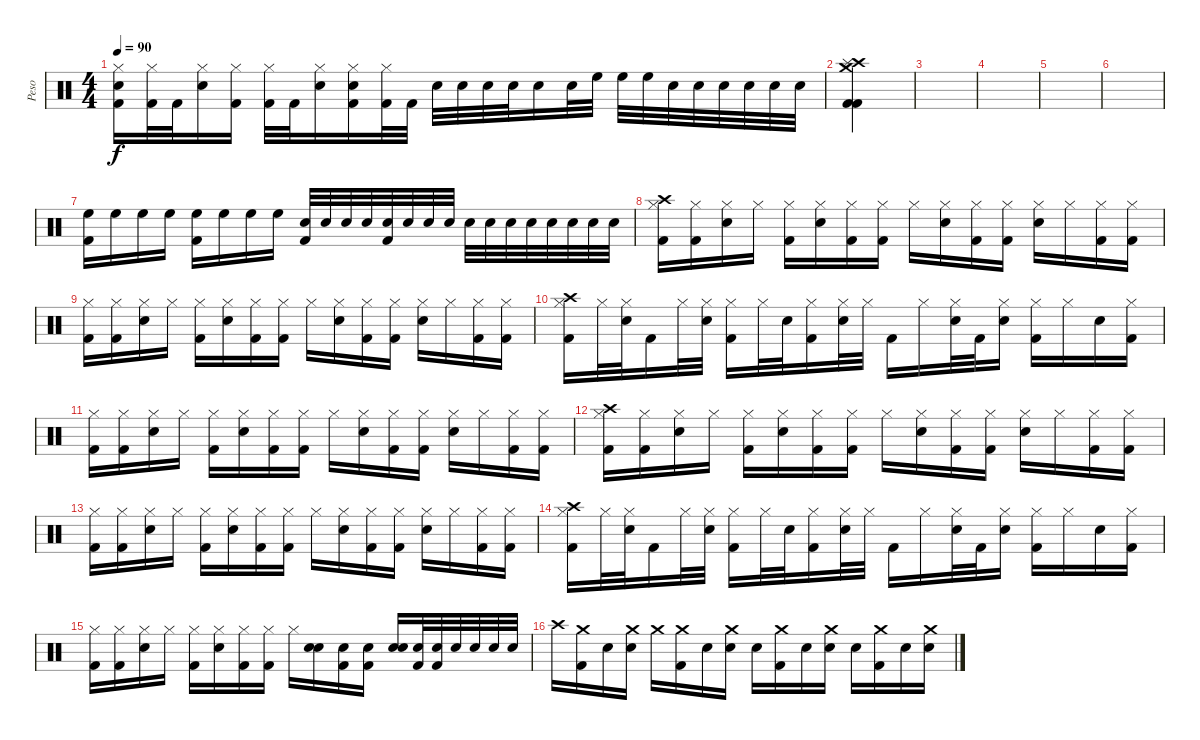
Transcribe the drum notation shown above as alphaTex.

\track ("Peso" "Peso") {instrument percussion}
\staff {score}
\articulation defaults
\ts (4 4)
\tempo 90
\clef neutral
\ks c
("Hi-Hat (closed)" "Snare (hit) 2" "Kick (hit) 2").16{dy f} ("Hi-Hat (closed)" "Kick (hit) 2").32 "Kick (hit) 2".32 ("Hi-Hat (closed)" "Snare (hit) 2").16 ("Hi-Hat (closed)" "Kick (hit) 2").16 ("Hi-Hat (closed)" "Kick (hit) 2").32 "Kick (hit) 2".32 ("Hi-Hat (closed)" "Snare (hit) 2").16 ("Hi-Hat (closed)" "Snare (hit) 2" "Kick (hit) 2").16 ("Hi-Hat (closed)" "Kick (hit) 2").32 "Kick (hit) 2".32 "Snare (hit) 2".32 "Snare (hit) 2".32 "Snare (hit) 2".32 "Snare (hit) 2".32 "Snare (hit) 2".16 "Snare (hit) 2".32 "High Floor Tom (hit)".32 "High Floor Tom (hit)".32 "High Floor Tom (hit)".32 "Snare (hit) 2".32 "Snare (hit) 2".32 "Snare (hit) 2".32 "Snare (hit) 2".32 "Snare (hit) 2".32 "Snare (hit) 2".32 |
("Crash high (hit)" "Splash (hit)" "Crash medium (hit)" "Kick (hit) 2" "Kick (hit) 2").4 |
|
|
|
|
("High Floor Tom (hit)" "Kick (hit) 2").16 "High Floor Tom (hit)".16 "High Floor Tom (hit)".16 "High Floor Tom (hit)".16 ("High Floor Tom (hit)" "Kick (hit) 2").16 "High Floor Tom (hit)".16 "High Floor Tom (hit)".16 "High Floor Tom (hit)".16 ("Snare (hit) 2" "Kick (hit) 2").32 "Snare (hit) 2".32 "Snare (hit) 2".32 "Snare (hit) 2".32 ("Snare (hit) 2" "Kick (hit) 2").32 "Snare (hit) 2".32 "Snare (hit) 2".32 "Snare (hit) 2".32 "Snare (hit) 2".32 "Snare (hit) 2".32 "Snare (hit) 2".32 "Snare (hit) 2".32 "Snare (hit) 2".32 "Snare (hit) 2".32 "Snare (hit) 2".32 "Snare (hit) 2".32 |
("Crash high (hit)" "Hi-Hat (closed)" "Kick (hit) 2").16 ("Hi-Hat (closed)" "Kick (hit) 2").16 ("Hi-Hat (closed)" "Snare (hit) 2").16 "Hi-Hat (closed)".16 ("Hi-Hat (closed)" "Kick (hit) 2").16 ("Hi-Hat (closed)" "Snare (hit) 2").16 ("Hi-Hat (closed)" "Kick (hit) 2").16 ("Hi-Hat (closed)" "Kick (hit) 2").16 "Hi-Hat (closed)".16 ("Hi-Hat (closed)" "Snare (hit) 2").16 ("Hi-Hat (closed)" "Kick (hit) 2").16 ("Hi-Hat (closed)" "Kick (hit) 2").16 ("Hi-Hat (closed)" "Snare (hit) 2").16 "Hi-Hat (closed)".16 ("Hi-Hat (closed)" "Kick (hit) 2").16 ("Hi-Hat (closed)" "Kick (hit) 2").16 |
("Hi-Hat (closed)" "Kick (hit) 2").16 ("Hi-Hat (closed)" "Kick (hit) 2").16 ("Hi-Hat (closed)" "Snare (hit) 2").16 "Hi-Hat (closed)".16 ("Hi-Hat (closed)" "Kick (hit) 2").16 ("Hi-Hat (closed)" "Snare (hit) 2").16 ("Hi-Hat (closed)" "Kick (hit) 2").16 ("Hi-Hat (closed)" "Kick (hit) 2").16 "Hi-Hat (closed)".16 ("Hi-Hat (closed)" "Snare (hit) 2").16 ("Hi-Hat (closed)" "Kick (hit) 2").16 ("Hi-Hat (closed)" "Kick (hit) 2").16 ("Hi-Hat (closed)" "Snare (hit) 2").16 "Hi-Hat (closed)".16 ("Hi-Hat (closed)" "Kick (hit) 2").16 ("Hi-Hat (closed)" "Kick (hit) 2").16 |
("Crash high (hit)" "Hi-Hat (closed)" "Kick (hit) 2").16 "Hi-Hat (closed)".32 ("Hi-Hat (closed)" "Snare (hit) 2").32 "Kick (hit) 2".16 "Hi-Hat (closed)".32 ("Hi-Hat (closed)" "Snare (hit) 2").32 ("Hi-Hat (closed)" "Kick (hit) 2").16 "Hi-Hat (closed)".32 "Snare (hit) 2".32 ("Hi-Hat (closed)" "Kick (hit) 2").16 ("Hi-Hat (closed)" "Snare (hit) 2").32 "Hi-Hat (closed)".32 "Kick (hit) 2".16 "Hi-Hat (closed)".16 ("Hi-Hat (closed)" "Snare (hit) 2").32 "Kick (hit) 2".32 ("Hi-Hat (closed)" "Snare (hit) 2").16 ("Hi-Hat (closed)" "Kick (hit) 2").16 "Hi-Hat (closed)".16 "Snare (hit) 2".16 ("Hi-Hat (closed)" "Kick (hit) 2").16 |
("Hi-Hat (closed)" "Kick (hit) 2").16 ("Hi-Hat (closed)" "Kick (hit) 2").16 ("Hi-Hat (closed)" "Snare (hit) 2").16 "Hi-Hat (closed)".16 ("Hi-Hat (closed)" "Kick (hit) 2").16 ("Hi-Hat (closed)" "Snare (hit) 2").16 ("Hi-Hat (closed)" "Kick (hit) 2").16 ("Hi-Hat (closed)" "Kick (hit) 2").16 "Hi-Hat (closed)".16 ("Hi-Hat (closed)" "Snare (hit) 2").16 ("Hi-Hat (closed)" "Kick (hit) 2").16 ("Hi-Hat (closed)" "Kick (hit) 2").16 ("Hi-Hat (closed)" "Snare (hit) 2").16 "Hi-Hat (closed)".16 ("Hi-Hat (closed)" "Kick (hit) 2").16 ("Hi-Hat (closed)" "Kick (hit) 2").16 |
("Crash high (hit)" "Hi-Hat (closed)" "Kick (hit) 2").16 ("Hi-Hat (closed)" "Kick (hit) 2").16 ("Hi-Hat (closed)" "Snare (hit) 2").16 "Hi-Hat (closed)".16 ("Hi-Hat (closed)" "Kick (hit) 2").16 ("Hi-Hat (closed)" "Snare (hit) 2").16 ("Hi-Hat (closed)" "Kick (hit) 2").16 ("Hi-Hat (closed)" "Kick (hit) 2").16 "Hi-Hat (closed)".16 ("Hi-Hat (closed)" "Snare (hit) 2").16 ("Hi-Hat (closed)" "Kick (hit) 2").16 ("Hi-Hat (closed)" "Kick (hit) 2").16 ("Hi-Hat (closed)" "Snare (hit) 2").16 "Hi-Hat (closed)".16 ("Hi-Hat (closed)" "Kick (hit) 2").16 ("Hi-Hat (closed)" "Kick (hit) 2").16 |
("Hi-Hat (closed)" "Kick (hit) 2").16 ("Hi-Hat (closed)" "Kick (hit) 2").16 ("Hi-Hat (closed)" "Snare (hit) 2").16 "Hi-Hat (closed)".16 ("Hi-Hat (closed)" "Kick (hit) 2").16 ("Hi-Hat (closed)" "Snare (hit) 2").16 ("Hi-Hat (closed)" "Kick (hit) 2").16 ("Hi-Hat (closed)" "Kick (hit) 2").16 "Hi-Hat (closed)".16 ("Hi-Hat (closed)" "Snare (hit) 2").16 ("Hi-Hat (closed)" "Kick (hit) 2").16 ("Hi-Hat (closed)" "Kick (hit) 2").16 ("Hi-Hat (closed)" "Snare (hit) 2").16 "Hi-Hat (closed)".16 ("Hi-Hat (closed)" "Kick (hit) 2").16 ("Hi-Hat (closed)" "Kick (hit) 2").16 |
("Crash high (hit)" "Hi-Hat (closed)" "Kick (hit) 2").16 "Hi-Hat (closed)".32 ("Hi-Hat (closed)" "Snare (hit) 2").32 "Kick (hit) 2".16 "Hi-Hat (closed)".32 ("Hi-Hat (closed)" "Snare (hit) 2").32 ("Hi-Hat (closed)" "Kick (hit) 2").16 "Hi-Hat (closed)".32 "Snare (hit) 2".32 ("Hi-Hat (closed)" "Kick (hit) 2").16 ("Hi-Hat (closed)" "Snare (hit) 2").32 "Hi-Hat (closed)".32 "Kick (hit) 2".16 "Hi-Hat (closed)".16 ("Hi-Hat (closed)" "Snare (hit) 2").32 "Kick (hit) 2".32 ("Hi-Hat (closed)" "Snare (hit) 2").16 ("Hi-Hat (closed)" "Kick (hit) 2").16 "Hi-Hat (closed)".16 "Snare (hit) 2".16 ("Hi-Hat (closed)" "Kick (hit) 2").16 |
("Hi-Hat (closed)" "Kick (hit) 2").16 ("Hi-Hat (closed)" "Kick (hit) 2").16 ("Hi-Hat (closed)" "Snare (hit) 2").16 "Hi-Hat (closed)".16 ("Hi-Hat (closed)" "Kick (hit) 2").16 ("Hi-Hat (closed)" "Snare (hit) 2").16 ("Hi-Hat (closed)" "Kick (hit) 2").16 ("Hi-Hat (closed)" "Kick (hit) 2").16 "Hi-Hat (closed)".16 ("Snare (hit) 2" "Snare (hit) 2").16 ("Snare (hit) 2" "Kick (hit) 2").16 ("Snare (hit) 2" "Kick (hit) 2").16 ("Snare (hit) 2" "Snare (hit) 2").16 ("Snare (hit) 2" "Kick (hit) 2").32 ("Snare (hit) 2" "Kick (hit) 2").32 "Snare (hit) 2".32 "Snare (hit) 2".32 "Snare (hit) 2".32 "Snare (hit) 2".32 |
"Crash high (hit)".16 ("Crash medium (hit)" "Kick (hit) 2").16 "Snare (hit)"{x}.16 ("Crash medium (hit)" "Snare (hit) 2").16 "Crash medium (hit)"{x}.16 ("Crash medium (hit)" "Kick (hit) 2").16 "Snare (hit)"{x}.16 ("Crash medium (hit)" "Snare (hit) 2").16 "Snare (hit)"{x}.16 ("Crash medium (hit)" "Kick (hit) 2").16 "Snare (hit)"{x}.16 ("Crash medium (hit)" "Snare (hit) 2").16 "Snare (hit)"{x}.16 ("Crash medium (hit)" "Kick (hit) 2").16 "Snare (hit)"{x}.16 ("Crash medium (hit)" "Snare (hit) 2").16
